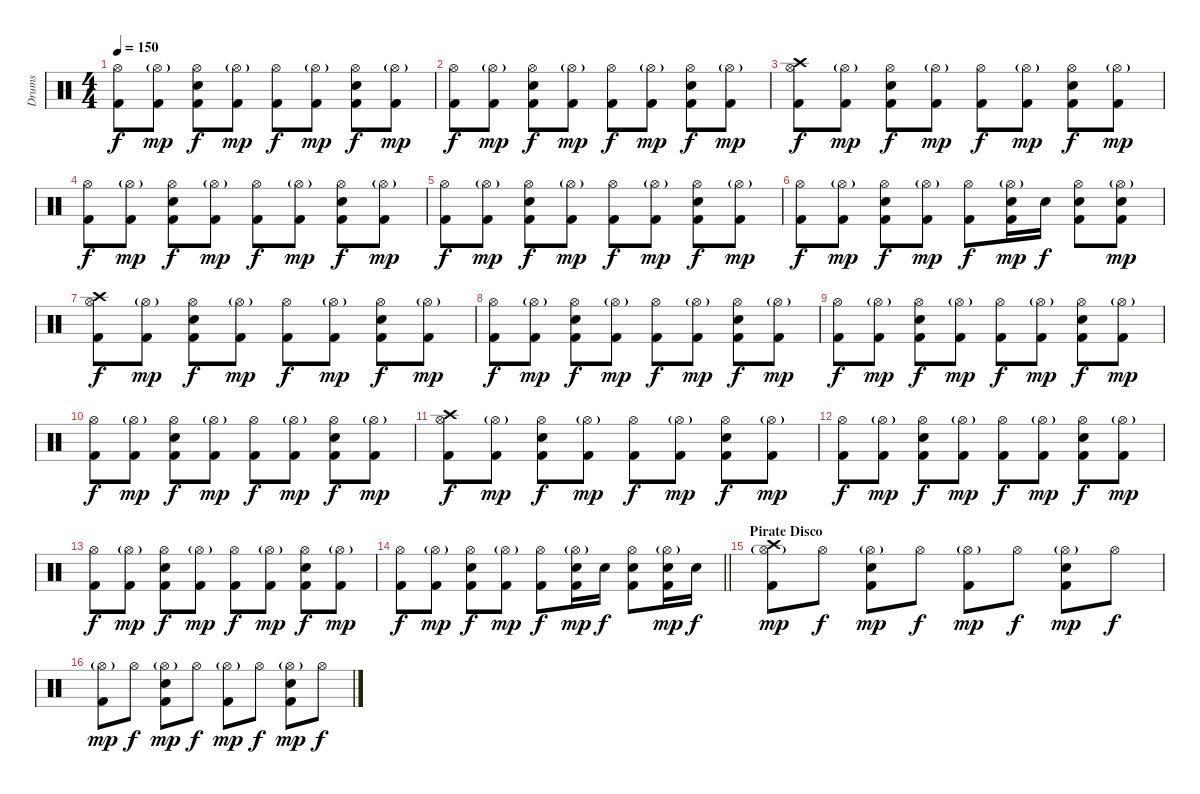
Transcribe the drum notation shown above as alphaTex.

\track ("Drums" "Drums") {instrument percussion}
\staff {score}
\articulation defaults
\ts (4 4)
\tempo 150
\clef neutral
\ks c
("Hi-Hat (open)" "Kick (hit) 2").8{dy f} ("Hi-Hat (open)"{g} "Kick (hit) 2").8{dy mp} ("Hi-Hat (open)" "Snare (hit) 2" "Kick (hit) 2").8{dy f} ("Hi-Hat (open)"{g} "Kick (hit) 2").8{dy mp} ("Hi-Hat (open)" "Kick (hit) 2").8{dy f} ("Hi-Hat (open)"{g} "Kick (hit) 2").8{dy mp} ("Hi-Hat (open)" "Snare (hit) 2" "Kick (hit) 2").8{dy f} ("Hi-Hat (open)"{g} "Kick (hit) 2").8{dy mp} |
("Hi-Hat (open)" "Kick (hit) 2").8{dy f} ("Hi-Hat (open)"{g} "Kick (hit) 2").8{dy mp} ("Hi-Hat (open)" "Snare (hit) 2" "Kick (hit) 2").8{dy f} ("Hi-Hat (open)"{g} "Kick (hit) 2").8{dy mp} ("Hi-Hat (open)" "Kick (hit) 2").8{dy f} ("Hi-Hat (open)"{g} "Kick (hit) 2").8{dy mp} ("Hi-Hat (open)" "Snare (hit) 2" "Kick (hit) 2").8{dy f} ("Hi-Hat (open)"{g} "Kick (hit) 2").8{dy mp} |
("Crash high (hit)" "Hi-Hat (open)" "Kick (hit) 2").8{dy f} ("Hi-Hat (open)"{g} "Kick (hit) 2").8{dy mp} ("Hi-Hat (open)" "Snare (hit) 2" "Kick (hit) 2").8{dy f} ("Hi-Hat (open)"{g} "Kick (hit) 2").8{dy mp} ("Hi-Hat (open)" "Kick (hit) 2").8{dy f} ("Hi-Hat (open)"{g} "Kick (hit) 2").8{dy mp} ("Hi-Hat (open)" "Snare (hit) 2" "Kick (hit) 2").8{dy f} ("Hi-Hat (open)"{g} "Kick (hit) 2").8{dy mp} |
("Hi-Hat (open)" "Kick (hit) 2").8{dy f} ("Hi-Hat (open)"{g} "Kick (hit) 2").8{dy mp} ("Hi-Hat (open)" "Snare (hit) 2" "Kick (hit) 2").8{dy f} ("Hi-Hat (open)"{g} "Kick (hit) 2").8{dy mp} ("Hi-Hat (open)" "Kick (hit) 2").8{dy f} ("Hi-Hat (open)"{g} "Kick (hit) 2").8{dy mp} ("Hi-Hat (open)" "Snare (hit) 2" "Kick (hit) 2").8{dy f} ("Hi-Hat (open)"{g} "Kick (hit) 2").8{dy mp} |
("Hi-Hat (open)" "Kick (hit) 2").8{dy f} ("Hi-Hat (open)"{g} "Kick (hit) 2").8{dy mp} ("Hi-Hat (open)" "Snare (hit) 2" "Kick (hit) 2").8{dy f} ("Hi-Hat (open)"{g} "Kick (hit) 2").8{dy mp} ("Hi-Hat (open)" "Kick (hit) 2").8{dy f} ("Hi-Hat (open)"{g} "Kick (hit) 2").8{dy mp} ("Hi-Hat (open)" "Snare (hit) 2" "Kick (hit) 2").8{dy f} ("Hi-Hat (open)"{g} "Kick (hit) 2").8{dy mp} |
("Hi-Hat (open)" "Kick (hit) 2").8{dy f} ("Hi-Hat (open)"{g} "Kick (hit) 2").8{dy mp} ("Hi-Hat (open)" "Snare (hit) 2" "Kick (hit) 2").8{dy f} ("Hi-Hat (open)"{g} "Kick (hit) 2").8{dy mp} ("Hi-Hat (open)" "Kick (hit) 2").8{dy f} ("Hi-Hat (open)"{g} "Snare (hit) 2" "Kick (hit) 2").16{dy mp} "Snare (hit) 2".16{dy f} ("Hi-Hat (open)" "Snare (hit) 2" "Kick (hit) 2").8 ("Hi-Hat (open)"{g} "Snare (hit) 2" "Kick (hit) 2").8{dy mp} |
("Crash high (hit)" "Hi-Hat (open)" "Kick (hit) 2").8{dy f} ("Hi-Hat (open)"{g} "Kick (hit) 2").8{dy mp} ("Hi-Hat (open)" "Snare (hit) 2" "Kick (hit) 2").8{dy f} ("Hi-Hat (open)"{g} "Kick (hit) 2").8{dy mp} ("Hi-Hat (open)" "Kick (hit) 2").8{dy f} ("Hi-Hat (open)"{g} "Kick (hit) 2").8{dy mp} ("Hi-Hat (open)" "Snare (hit) 2" "Kick (hit) 2").8{dy f} ("Hi-Hat (open)"{g} "Kick (hit) 2").8{dy mp} |
("Hi-Hat (open)" "Kick (hit) 2").8{dy f} ("Hi-Hat (open)"{g} "Kick (hit) 2").8{dy mp} ("Hi-Hat (open)" "Snare (hit) 2" "Kick (hit) 2").8{dy f} ("Hi-Hat (open)"{g} "Kick (hit) 2").8{dy mp} ("Hi-Hat (open)" "Kick (hit) 2").8{dy f} ("Hi-Hat (open)"{g} "Kick (hit) 2").8{dy mp} ("Hi-Hat (open)" "Snare (hit) 2" "Kick (hit) 2").8{dy f} ("Hi-Hat (open)"{g} "Kick (hit) 2").8{dy mp} |
("Hi-Hat (open)" "Kick (hit) 2").8{dy f} ("Hi-Hat (open)"{g} "Kick (hit) 2").8{dy mp} ("Hi-Hat (open)" "Snare (hit) 2" "Kick (hit) 2").8{dy f} ("Hi-Hat (open)"{g} "Kick (hit) 2").8{dy mp} ("Hi-Hat (open)" "Kick (hit) 2").8{dy f} ("Hi-Hat (open)"{g} "Kick (hit) 2").8{dy mp} ("Hi-Hat (open)" "Snare (hit) 2" "Kick (hit) 2").8{dy f} ("Hi-Hat (open)"{g} "Kick (hit) 2").8{dy mp} |
("Hi-Hat (open)" "Kick (hit) 2").8{dy f} ("Hi-Hat (open)"{g} "Kick (hit) 2").8{dy mp} ("Hi-Hat (open)" "Snare (hit) 2" "Kick (hit) 2").8{dy f} ("Hi-Hat (open)"{g} "Kick (hit) 2").8{dy mp} ("Hi-Hat (open)" "Kick (hit) 2").8{dy f} ("Hi-Hat (open)"{g} "Kick (hit) 2").8{dy mp} ("Hi-Hat (open)" "Snare (hit) 2" "Kick (hit) 2").8{dy f} ("Hi-Hat (open)"{g} "Kick (hit) 2").8{dy mp} |
("Crash high (hit)" "Hi-Hat (open)" "Kick (hit) 2").8{dy f} ("Hi-Hat (open)"{g} "Kick (hit) 2").8{dy mp} ("Hi-Hat (open)" "Snare (hit) 2" "Kick (hit) 2").8{dy f} ("Hi-Hat (open)"{g} "Kick (hit) 2").8{dy mp} ("Hi-Hat (open)" "Kick (hit) 2").8{dy f} ("Hi-Hat (open)"{g} "Kick (hit) 2").8{dy mp} ("Hi-Hat (open)" "Snare (hit) 2" "Kick (hit) 2").8{dy f} ("Hi-Hat (open)"{g} "Kick (hit) 2").8{dy mp} |
("Hi-Hat (open)" "Kick (hit) 2").8{dy f} ("Hi-Hat (open)"{g} "Kick (hit) 2").8{dy mp} ("Hi-Hat (open)" "Snare (hit) 2" "Kick (hit) 2").8{dy f} ("Hi-Hat (open)"{g} "Kick (hit) 2").8{dy mp} ("Hi-Hat (open)" "Kick (hit) 2").8{dy f} ("Hi-Hat (open)"{g} "Kick (hit) 2").8{dy mp} ("Hi-Hat (open)" "Snare (hit) 2" "Kick (hit) 2").8{dy f} ("Hi-Hat (open)"{g} "Kick (hit) 2").8{dy mp} |
("Hi-Hat (open)" "Kick (hit) 2").8{dy f} ("Hi-Hat (open)"{g} "Kick (hit) 2").8{dy mp} ("Hi-Hat (open)" "Snare (hit) 2" "Kick (hit) 2").8{dy f} ("Hi-Hat (open)"{g} "Kick (hit) 2").8{dy mp} ("Hi-Hat (open)" "Kick (hit) 2").8{dy f} ("Hi-Hat (open)"{g} "Kick (hit) 2").8{dy mp} ("Hi-Hat (open)" "Snare (hit) 2" "Kick (hit) 2").8{dy f} ("Hi-Hat (open)"{g} "Kick (hit) 2").8{dy mp} |
\barLineRight lightlight
("Hi-Hat (open)" "Kick (hit) 2").8{dy f} ("Hi-Hat (open)"{g} "Kick (hit) 2").8{dy mp} ("Hi-Hat (open)" "Snare (hit) 2" "Kick (hit) 2").8{dy f} ("Hi-Hat (open)"{g} "Kick (hit) 2").8{dy mp} ("Hi-Hat (open)" "Kick (hit) 2").8{dy f} ("Hi-Hat (open)"{g} "Snare (hit) 2" "Kick (hit) 2").16{dy mp} "Snare (hit) 2".16{dy f} ("Hi-Hat (open)" "Snare (hit) 2" "Kick (hit) 2").8 ("Hi-Hat (open)"{g} "Snare (hit) 2" "Kick (hit) 2").16{dy mp} "Snare (hit) 2".16{dy f} |
\section ("" "Pirate Disco")
("Crash high (hit)" "Hi-Hat (open)"{g} "Kick (hit) 2").8{dy mp} "Hi-Hat (open)".8{dy f} ("Hi-Hat (open)"{g} "Snare (hit) 2" "Kick (hit) 2").8{dy mp} "Hi-Hat (open)".8{dy f} ("Hi-Hat (open)"{g} "Kick (hit) 2").8{dy mp} "Hi-Hat (open)".8{dy f} ("Hi-Hat (open)"{g} "Snare (hit) 2" "Kick (hit) 2").8{dy mp} "Hi-Hat (open)".8{dy f} |
("Hi-Hat (open)"{g} "Kick (hit) 2").8{dy mp} "Hi-Hat (open)".8{dy f} ("Hi-Hat (open)"{g} "Snare (hit) 2" "Kick (hit) 2").8{dy mp} "Hi-Hat (open)".8{dy f} ("Hi-Hat (open)"{g} "Kick (hit) 2").8{dy mp} "Hi-Hat (open)".8{dy f} ("Hi-Hat (open)"{g} "Snare (hit) 2" "Kick (hit) 2").8{dy mp} "Hi-Hat (open)".8{dy f}
